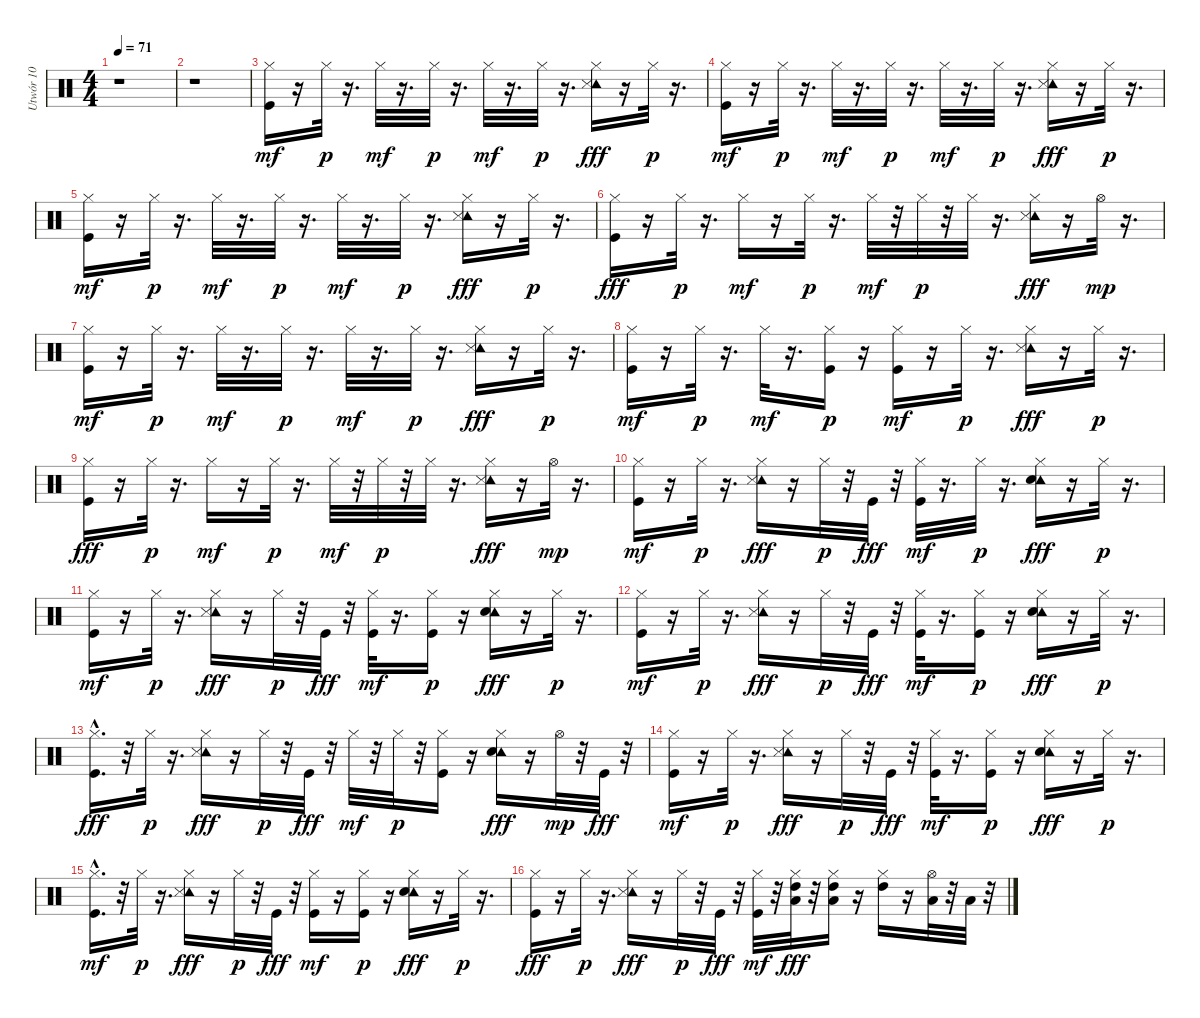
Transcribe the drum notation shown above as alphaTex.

\track ("Utwór 10" "Utwór 10") {instrument percussion}
\staff {score}
\articulation defaults
\ts (4 4)
\tempo 71
\clef neutral
\ks c
r.1{dy mf} |
r.1 |
("Kick (hit)" "Hi-Hat (closed)").16 r.16 "Hi-Hat (closed)".32{dy p} r.16{d} "Hi-Hat (closed)".32{dy mf} r.16{d} "Hi-Hat (closed)".32{dy p} r.16{d} "Hi-Hat (closed)".32{dy mf} r.16{d} "Hi-Hat (closed)".32{dy p} r.16{d} ("Hi-Hat (closed)" "Tambourine (hit)" "Snare (side stick) 3").16{dy fff} r.16 "Hi-Hat (closed)".32{dy p} r.16{d} |
("Kick (hit)" "Hi-Hat (closed)").16{dy mf} r.16 "Hi-Hat (closed)".32{dy p} r.16{d} "Hi-Hat (closed)".32{dy mf} r.16{d} "Hi-Hat (closed)".32{dy p} r.16{d} "Hi-Hat (closed)".32{dy mf} r.16{d} "Hi-Hat (closed)".32{dy p} r.16{d} ("Hi-Hat (closed)" "Tambourine (hit)" "Snare (side stick) 3").16{dy fff} r.16 "Hi-Hat (closed)".32{dy p} r.16{d} |
("Kick (hit)" "Hi-Hat (closed)").16{dy mf} r.16 "Hi-Hat (closed)".32{dy p} r.16{d} "Hi-Hat (closed)".32{dy mf} r.16{d} "Hi-Hat (closed)".32{dy p} r.16{d} "Hi-Hat (closed)".32{dy mf} r.16{d} "Hi-Hat (closed)".32{dy p} r.16{d} ("Hi-Hat (closed)" "Tambourine (hit)" "Snare (side stick) 3").16{dy fff} r.16 "Hi-Hat (closed)".32{dy p} r.16{d} |
("Kick (hit)" "Hi-Hat (closed)").16{dy fff} r.16 "Hi-Hat (closed)".32{dy p} r.16{d} "Hi-Hat (closed)".16{dy mf} r.16 "Hi-Hat (closed)".32{dy p} r.16{d} "Hi-Hat (closed)".32{dy mf} r.32 "Hi-Hat (closed)".32{dy p} r.32 "Hi-Hat (closed)".32 r.16{d} ("Hi-Hat (closed)" "Tambourine (hit)" "Snare (side stick) 3").16{dy fff} r.16 "Hi-Hat (open)".32{dy mp} r.16{d} |
("Kick (hit)" "Hi-Hat (closed)").16{dy mf} r.16 "Hi-Hat (closed)".32{dy p} r.16{d} "Hi-Hat (closed)".32{dy mf} r.16{d} "Hi-Hat (closed)".32{dy p} r.16{d} "Hi-Hat (closed)".32{dy mf} r.16{d} "Hi-Hat (closed)".32{dy p} r.16{d} ("Hi-Hat (closed)" "Tambourine (hit)" "Snare (side stick) 3").16{dy fff} r.16 "Hi-Hat (closed)".32{dy p} r.16{d} |
("Kick (hit)" "Hi-Hat (closed)").16{dy mf} r.16 "Hi-Hat (closed)".32{dy p} r.16{d} "Hi-Hat (closed)".32{dy mf} r.16{d} ("Kick (hit)" "Hi-Hat (closed)").16{dy p} r.16 ("Kick (hit)" "Hi-Hat (closed)").16{dy mf} r.16 "Hi-Hat (closed)".32{dy p} r.16{d} ("Hi-Hat (closed)" "Tambourine (hit)" "Snare (side stick) 3").16{dy fff} r.16 "Hi-Hat (closed)".32{dy p} r.16{d} |
("Kick (hit)" "Hi-Hat (closed)").16{dy fff} r.16 "Hi-Hat (closed)".32{dy p} r.16{d} "Hi-Hat (closed)".16{dy mf} r.16 "Hi-Hat (closed)".32{dy p} r.16{d} "Hi-Hat (closed)".32{dy mf} r.32 "Hi-Hat (closed)".32{dy p} r.32 "Hi-Hat (closed)".32 r.16{d} ("Hi-Hat (closed)" "Tambourine (hit)" "Snare (side stick) 3").16{dy fff} r.16 "Hi-Hat (open)".32{dy mp} r.16{d} |
("Kick (hit)" "Hi-Hat (closed)").16{dy mf} r.16 "Hi-Hat (closed)".32{dy p} r.16{d} ("Hi-Hat (closed)" "Tambourine (hit)" "Snare (side stick) 3").16{dy fff} r.16 "Hi-Hat (closed)".32{dy p} r.32 "Kick (hit)".32{dy fff} r.32 ("Kick (hit)" "Hi-Hat (closed)").32{dy mf} r.16{d} "Hi-Hat (closed)".32{dy p} r.16{d} ("Hi-Hat (closed)" "Tambourine (hit)" "Snare (hit) 2").16{dy fff} r.16 "Hi-Hat (closed)".32{dy p} r.16{d} |
("Kick (hit)" "Hi-Hat (closed)").16{dy mf} r.16 "Hi-Hat (closed)".32{dy p} r.16{d} ("Hi-Hat (closed)" "Tambourine (hit)" "Snare (side stick) 3").16{dy fff} r.16 "Hi-Hat (closed)".32{dy p} r.32 "Kick (hit)".32{dy fff} r.32 ("Kick (hit)" "Hi-Hat (closed)").32{dy mf} r.16{d} ("Kick (hit)" "Hi-Hat (closed)").16{dy p} r.16 ("Hi-Hat (closed)" "Tambourine (hit)" "Snare (hit) 2").16{dy fff} r.16 "Hi-Hat (closed)".32{dy p} r.16{d} |
("Kick (hit)" "Hi-Hat (closed)").16{dy mf} r.16 "Hi-Hat (closed)".32{dy p} r.16{d} ("Hi-Hat (closed)" "Tambourine (hit)" "Snare (side stick) 3").16{dy fff} r.16 "Hi-Hat (closed)".32{dy p} r.32 "Kick (hit)".32{dy fff} r.32 ("Kick (hit)" "Hi-Hat (closed)").32{dy mf} r.16{d} ("Kick (hit)" "Hi-Hat (closed)").16{dy p} r.16 ("Hi-Hat (closed)" "Tambourine (hit)" "Snare (hit) 2").16{dy fff} r.16 "Hi-Hat (closed)".32{dy p} r.16{d} |
("Kick (hit)"{hac} "Hi-Hat (closed)").16{d dy fff} r.32 "Hi-Hat (closed)".32{dy p} r.16{d} ("Hi-Hat (closed)" "Tambourine (hit)" "Snare (side stick) 3").16{dy fff} r.16 "Hi-Hat (closed)".32{dy p} r.32 "Kick (hit)".32{dy fff} r.32 "Hi-Hat (closed)".32{dy mf} r.32 "Hi-Hat (closed)".32{dy p} r.32 ("Kick (hit)" "Hi-Hat (closed)").16 r.16 ("Hi-Hat (closed)" "Tambourine (hit)" "Snare (hit) 2").16{dy fff} r.16 "Hi-Hat (open)".32{dy mp} r.32 "Kick (hit)".32{dy fff} r.32 |
("Kick (hit)" "Hi-Hat (closed)").16{dy mf} r.16 "Hi-Hat (closed)".32{dy p} r.16{d} ("Hi-Hat (closed)" "Tambourine (hit)" "Snare (side stick) 3").16{dy fff} r.16 "Hi-Hat (closed)".32{dy p} r.32 "Kick (hit)".32{dy fff} r.32 ("Kick (hit)" "Hi-Hat (closed)").32{dy mf} r.16{d} ("Kick (hit)" "Hi-Hat (closed)").16{dy p} r.16 ("Hi-Hat (closed)" "Tambourine (hit)" "Snare (hit) 2").16{dy fff} r.16 "Hi-Hat (closed)".32{dy p} r.16{d} |
("Kick (hit)"{hac} "Hi-Hat (closed)").16{d dy mf} r.32 "Hi-Hat (closed)".32{dy p} r.16{d} ("Hi-Hat (closed)" "Tambourine (hit)" "Snare (side stick) 3").16{dy fff} r.16 "Hi-Hat (closed)".32{dy p} r.32 "Kick (hit)".32{dy fff} r.32 ("Kick (hit)" "Hi-Hat (closed)").16{dy mf} r.16 ("Kick (hit)" "Hi-Hat (closed)").16{dy p} r.16 ("Hi-Hat (closed)" "Tambourine (hit)" "Snare (hit) 2").16{dy fff} r.16 "Hi-Hat (closed)".32{dy p} r.16{d} |
("Kick (hit)" "Hi-Hat (closed)").16{dy fff} r.16 "Hi-Hat (closed)".32{dy p} r.16{d} ("Hi-Hat (closed)" "Tambourine (hit)" "Snare (side stick) 3").16{dy fff} r.16 "Hi-Hat (closed)".32{dy p} r.32 "Kick (hit)".32{dy fff} r.32 ("Kick (hit)" "Hi-Hat (closed)").32{dy mf} r.32 ("Hi-Hat (closed)" "High Tom (hit)" "Low Tom (hit)").32{dy fff} r.32 ("Hi-Hat (closed)" "High Tom (hit)" "Low Tom (hit)").16 r.16 ("Hi-Hat (closed)" "High Tom (hit)").16 r.16 ("Hi-Hat (open)" "Low Tom (hit)").32 r.32 "Low Floor Tom (hit)".32 r.32
